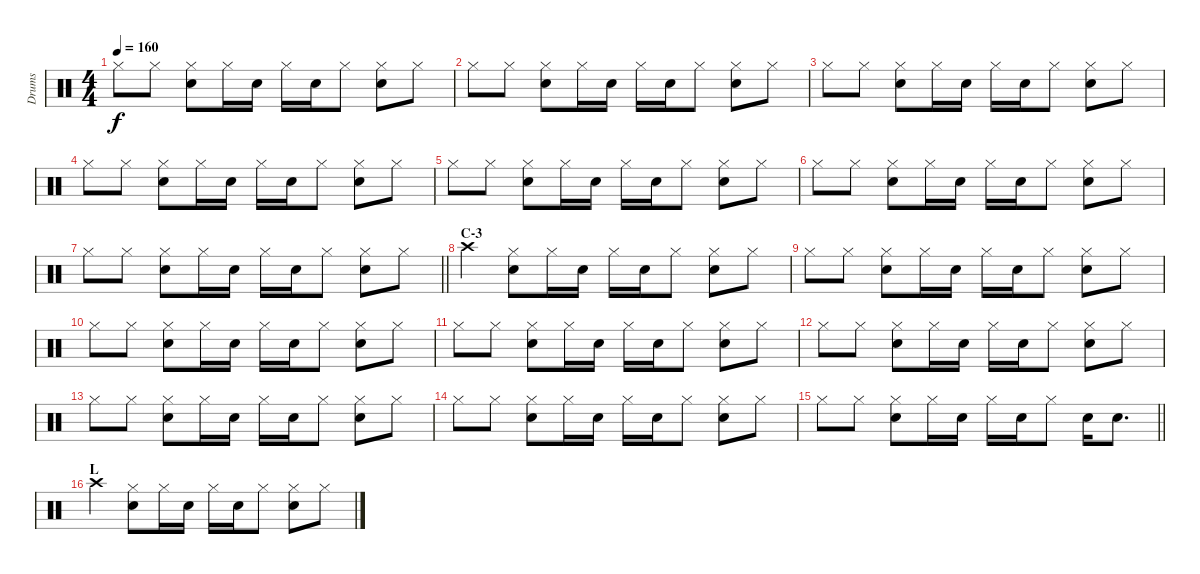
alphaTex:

\track ("Drums" "Drums") {instrument percussion}
\staff {score}
\articulation defaults
\ts (4 4)
\tempo 160
\clef neutral
\ks c "Hi-Hat (closed)".8{dy f} "Hi-Hat (closed)".8
("Hi-Hat (closed)" "Snare (hit) 2").8 "Hi-Hat (closed)".16 "Snare (hit) 2".16 "Hi-Hat (closed)".16 "Snare (hit) 2".16 "Hi-Hat (closed)".8 ("Hi-Hat (closed)" "Snare (hit) 2").8 "Hi-Hat (closed)".8 |
"Hi-Hat (closed)".8 "Hi-Hat (closed)".8 ("Hi-Hat (closed)" "Snare (hit) 2").8 "Hi-Hat (closed)".16 "Snare (hit) 2".16 "Hi-Hat (closed)".16 "Snare (hit) 2".16 "Hi-Hat (closed)".8 ("Hi-Hat (closed)" "Snare (hit) 2").8 "Hi-Hat (closed)".8 |
"Hi-Hat (closed)".8 "Hi-Hat (closed)".8 ("Hi-Hat (closed)" "Snare (hit) 2").8 "Hi-Hat (closed)".16 "Snare (hit) 2".16 "Hi-Hat (closed)".16 "Snare (hit) 2".16 "Hi-Hat (closed)".8 ("Hi-Hat (closed)" "Snare (hit) 2").8 "Hi-Hat (closed)".8 |
"Hi-Hat (closed)".8 "Hi-Hat (closed)".8 ("Hi-Hat (closed)" "Snare (hit) 2").8 "Hi-Hat (closed)".16 "Snare (hit) 2".16 "Hi-Hat (closed)".16 "Snare (hit) 2".16 "Hi-Hat (closed)".8 ("Hi-Hat (closed)" "Snare (hit) 2").8 "Hi-Hat (closed)".8 |
"Hi-Hat (closed)".8 "Hi-Hat (closed)".8 ("Hi-Hat (closed)" "Snare (hit) 2").8 "Hi-Hat (closed)".16 "Snare (hit) 2".16 "Hi-Hat (closed)".16 "Snare (hit) 2".16 "Hi-Hat (closed)".8 ("Hi-Hat (closed)" "Snare (hit) 2").8 "Hi-Hat (closed)".8 |
"Hi-Hat (closed)".8 "Hi-Hat (closed)".8 ("Hi-Hat (closed)" "Snare (hit) 2").8 "Hi-Hat (closed)".16 "Snare (hit) 2".16 "Hi-Hat (closed)".16 "Snare (hit) 2".16 "Hi-Hat (closed)".8 ("Hi-Hat (closed)" "Snare (hit) 2").8 "Hi-Hat (closed)".8 |
\barLineRight lightlight "Hi-Hat (closed)".8 "Hi-Hat (closed)".8
("Hi-Hat (closed)" "Snare (hit) 2").8 "Hi-Hat (closed)".16 "Snare (hit) 2".16 "Hi-Hat (closed)".16 "Snare (hit) 2".16 "Hi-Hat (closed)".8 ("Hi-Hat (closed)" "Snare (hit) 2").8 "Hi-Hat (closed)".8 |
\section ("" "C-3")
"Crash high (hit)".4 ("Hi-Hat (closed)" "Snare (hit) 2").8 "Hi-Hat (closed)".16 "Snare (hit) 2".16 "Hi-Hat (closed)".16 "Snare (hit) 2".16 "Hi-Hat (closed)".8 ("Hi-Hat (closed)" "Snare (hit) 2").8 "Hi-Hat (closed)".8 |
"Hi-Hat (closed)".8 "Hi-Hat (closed)".8 ("Hi-Hat (closed)" "Snare (hit) 2").8 "Hi-Hat (closed)".16 "Snare (hit) 2".16 "Hi-Hat (closed)".16 "Snare (hit) 2".16 "Hi-Hat (closed)".8 ("Hi-Hat (closed)" "Snare (hit) 2").8 "Hi-Hat (closed)".8 |
"Hi-Hat (closed)".8 "Hi-Hat (closed)".8 ("Hi-Hat (closed)" "Snare (hit) 2").8 "Hi-Hat (closed)".16 "Snare (hit) 2".16 "Hi-Hat (closed)".16 "Snare (hit) 2".16 "Hi-Hat (closed)".8 ("Hi-Hat (closed)" "Snare (hit) 2").8 "Hi-Hat (closed)".8 |
"Hi-Hat (closed)".8 "Hi-Hat (closed)".8 ("Hi-Hat (closed)" "Snare (hit) 2").8 "Hi-Hat (closed)".16 "Snare (hit) 2".16 "Hi-Hat (closed)".16 "Snare (hit) 2".16 "Hi-Hat (closed)".8 ("Hi-Hat (closed)" "Snare (hit) 2").8 "Hi-Hat (closed)".8 |
"Hi-Hat (closed)".8 "Hi-Hat (closed)".8 ("Hi-Hat (closed)" "Snare (hit) 2").8 "Hi-Hat (closed)".16 "Snare (hit) 2".16 "Hi-Hat (closed)".16 "Snare (hit) 2".16 "Hi-Hat (closed)".8 ("Hi-Hat (closed)" "Snare (hit) 2").8 "Hi-Hat (closed)".8 |
"Hi-Hat (closed)".8 "Hi-Hat (closed)".8 ("Hi-Hat (closed)" "Snare (hit) 2").8 "Hi-Hat (closed)".16 "Snare (hit) 2".16 "Hi-Hat (closed)".16 "Snare (hit) 2".16 "Hi-Hat (closed)".8 ("Hi-Hat (closed)" "Snare (hit) 2").8 "Hi-Hat (closed)".8 |
"Hi-Hat (closed)".8 "Hi-Hat (closed)".8 ("Hi-Hat (closed)" "Snare (hit) 2").8 "Hi-Hat (closed)".16 "Snare (hit) 2".16 "Hi-Hat (closed)".16 "Snare (hit) 2".16 "Hi-Hat (closed)".8 ("Hi-Hat (closed)" "Snare (hit) 2").8 "Hi-Hat (closed)".8 |
\barLineRight lightlight "Hi-Hat (closed)".8 "Hi-Hat (closed)".8
("Hi-Hat (closed)" "Snare (hit) 2").8 "Hi-Hat (closed)".16 "Snare (hit) 2".16 "Hi-Hat (closed)".16 "Snare (hit) 2".16 "Hi-Hat (closed)".8 "Snare (hit) 2".16 "Snare (hit) 2".8{d} |
\section ("" "L")
"Crash high (hit)".4 ("Hi-Hat (closed)" "Snare (hit) 2").8 "Hi-Hat (closed)".16 "Snare (hit) 2".16 "Hi-Hat (closed)".16 "Snare (hit) 2".16 "Hi-Hat (closed)".8 ("Hi-Hat (closed)" "Snare (hit) 2").8 "Hi-Hat (closed)".8
